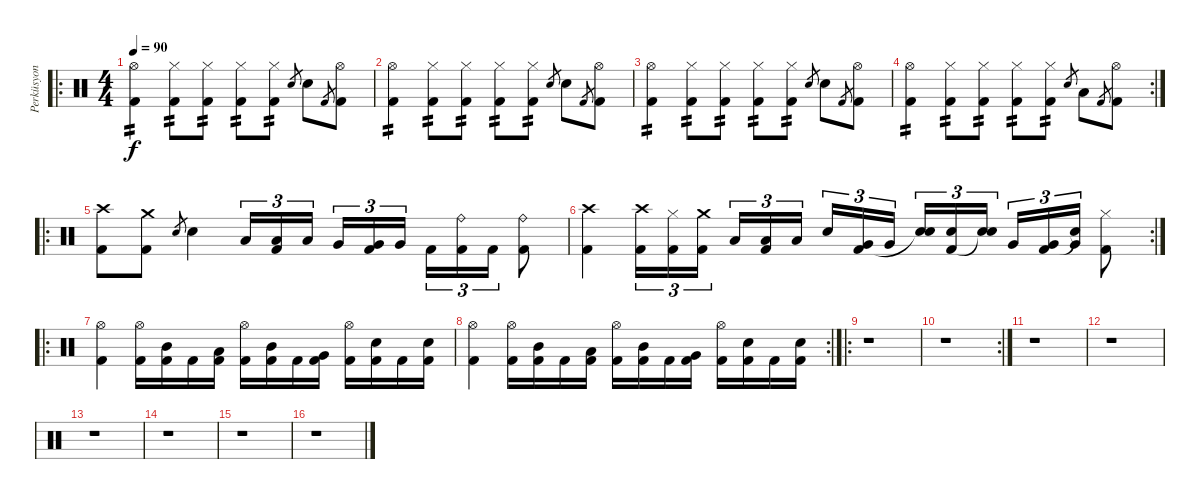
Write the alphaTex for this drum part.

\track ("Perküsyon" "Perküsyon") {instrument percussion}
\staff {score}
\articulation defaults
\ro
\ts (4 4)
\tempo 90
\clef neutral
\ks c
("Hi-Hat (open)" "Kick (hit) 2").4{tp 2 dy f} ("Hi-Hat (closed)" "Kick (hit) 2").8{tp 2} ("Hi-Hat (closed)" "Kick (hit) 2").8{tp 2} ("Hi-Hat (closed)" "Kick (hit) 2").8{tp 2} ("Hi-Hat (closed)" "Kick (hit) 2").8{tp 2} "Snare (hit) 2".8{gr} "Snare (hit) 2".8 "Kick (hit) 2".8{gr} ("Kick (hit) 2" "Hi-Hat (open)").8 |
("Hi-Hat (open)" "Kick (hit) 2").4{tp 2} ("Hi-Hat (closed)" "Kick (hit) 2").8{tp 2} ("Hi-Hat (closed)" "Kick (hit) 2").8{tp 2} ("Hi-Hat (closed)" "Kick (hit) 2").8{tp 2} ("Hi-Hat (closed)" "Kick (hit) 2").8{tp 2} "Snare (hit) 2".8{gr} "Snare (hit) 2".8 "Kick (hit) 2".8{gr} ("Kick (hit) 2" "Hi-Hat (open)").8 |
("Hi-Hat (open)" "Kick (hit) 2").4{tp 2} ("Hi-Hat (closed)" "Kick (hit) 2").8{tp 2} ("Hi-Hat (closed)" "Kick (hit) 2").8{tp 2} ("Hi-Hat (closed)" "Kick (hit) 2").8{tp 2} ("Hi-Hat (closed)" "Kick (hit) 2").8{tp 2} "Snare (hit) 2".8{gr} "Snare (hit) 2".8 "Kick (hit) 2".8{gr} ("Kick (hit) 2" "Hi-Hat (open)").8 |
\rc 2
("Hi-Hat (open)" "Kick (hit) 2").4{tp 2} ("Hi-Hat (closed)" "Kick (hit) 2").8{tp 2} ("Hi-Hat (closed)" "Kick (hit) 2").8{tp 2} ("Hi-Hat (closed)" "Kick (hit) 2").8{tp 2} ("Hi-Hat (closed)" "Kick (hit) 2").8{tp 2} "Snare (hit) 2".8{gr} "Low Tom (hit)".8 "Kick (hit) 2".8{gr} ("Kick (hit) 2" "Hi-Hat (open)").8 |
\ro
("Crash high (hit)" "Kick (hit) 2").8 ("Crash medium (hit)" "Kick (hit) 2").8 "Snare (hit) 2".8{gr} "Snare (hit) 2".4 "Low Tom (hit)".16{tu (3 2)} ("Low Tom (hit)" "Kick (hit) 2").16{tu (3 2)} "Low Tom (hit)".16{tu (3 2)} "Very Low Tom (hit)".16{tu (3 2)} ("Very Low Tom (hit)" "Kick (hit) 2").16{tu (3 2)} "Very Low Tom (hit)".16{tu (3 2)} "Kick (hit) 2".16{tu (3 2)} ("Kick (hit) 2" "Ride (bell)").16{tu (3 2)} "Kick (hit) 2".16{tu (3 2)} ("Ride (bell)" "Kick (hit) 2").8 |
\rc 2
("Kick (hit) 2" "Crash high (hit)").4 ("Kick (hit) 2" "Crash high (hit)").16{tu (3 2)} ("Kick (hit) 2" "Hi-Hat (closed)").16{tu (3 2)} ("Kick (hit) 2" "Crash medium (hit)").16{tu (3 2)} "Low Tom (hit)".16{tu (3 2)} ("Low Tom (hit)" "Kick (hit) 2").16{tu (3 2)} "Low Tom (hit)".16{tu (3 2)} "Snare (hit) 2".16{tu (3 2)} ("Very Low Tom (hit)" "Kick (hit) 2").16{tu (3 2)} "Very Low Tom (hit)".16{tu (3 2)} ("Snare (hit) 2" "Snare (hit)"{t}).16{tu (3 2)} ("Snare (hit) 2" "Kick (hit) 2").16{tu (3 2)} ("Snare (hit) 2" "Snare (hit)"{t}).16{tu (3 2)} "Very Low Tom (hit)".16{tu (3 2)} ("Very Low Tom (hit)" "Kick (hit) 2").16{tu (3 2)} ("Very Low Tom (hit)" "Snare (hit)"{t}).16{tu (3 2)} ("Hi-Hat (closed)" "Kick (hit) 2").8 |
\ro
("Kick (hit) 2" "Hi-Hat (open)").4 ("Kick (hit) 2" "Hi-Hat (open)").16 ("Kick (hit) 2" "Mid Tom (hit)").16 "Kick (hit) 2".16 ("Kick (hit) 2" "Low Tom (hit)").16 ("Kick (hit) 2" "Hi-Hat (open)").16 ("Kick (hit) 2" "Mid Tom (hit)").16 "Kick (hit) 2".16 ("Kick (hit) 2" "Very Low Tom (hit)").16 ("Kick (hit) 2" "Hi-Hat (open)").16 ("Kick (hit) 2" "Snare (hit) 2").16 "Kick (hit) 2".16 ("Kick (hit) 2" "Snare (hit) 2").16 |
\rc 2
("Kick (hit) 2" "Hi-Hat (open)").4 ("Kick (hit) 2" "Hi-Hat (open)").16 ("Kick (hit) 2" "Mid Tom (hit)").16 "Kick (hit) 2".16 ("Kick (hit) 2" "Low Tom (hit)").16 ("Kick (hit) 2" "Hi-Hat (open)").16 ("Kick (hit) 2" "Mid Tom (hit)").16 "Kick (hit) 2".16 ("Kick (hit) 2" "Very Low Tom (hit)").16 ("Kick (hit) 2" "Hi-Hat (open)").16 ("Kick (hit) 2" "Snare (hit) 2").16 "Kick (hit) 2".16 ("Kick (hit) 2" "Snare (hit) 2").16 |
\ro
r.1 |
\rc 2
r.1 |
r.1 |
r.1 |
r.1 |
r.1 |
r.1 |
r.1
